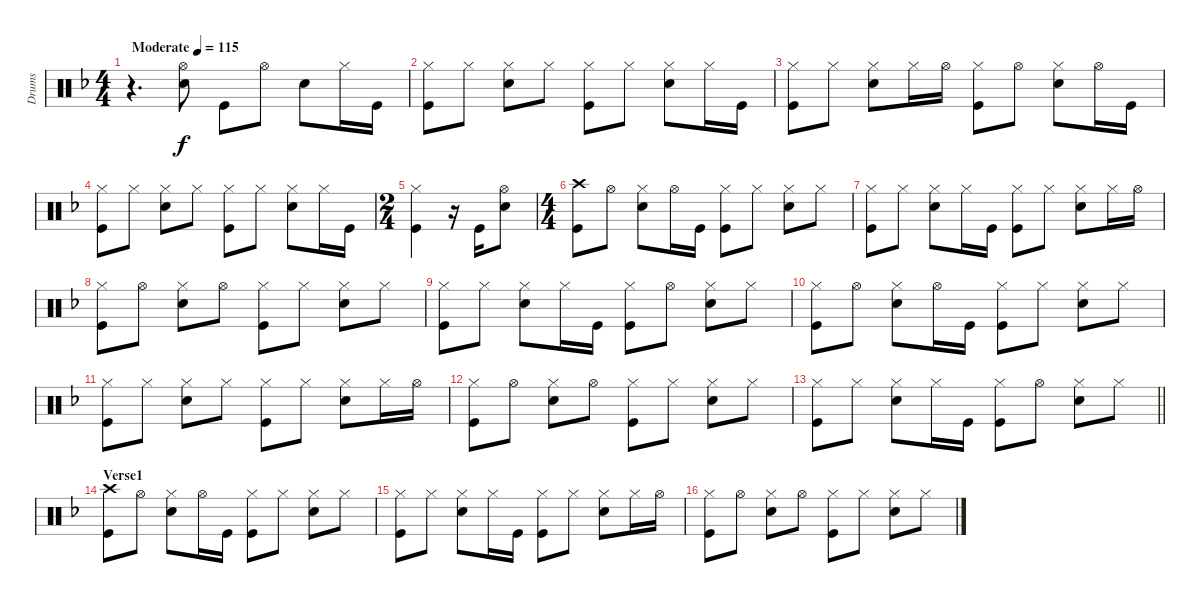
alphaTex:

\track ("Drums" "Drums") {instrument percussion}
\staff {score}
\articulation defaults
\ts (4 4)
\tempo (115 "Moderate")
\clef neutral
\ks f
r.4{d dy f} ("Hi-Hat (open)" "Snare (hit) 2").8 "Kick (hit)".8 "Hi-Hat (open)".8 "Snare (hit) 2".8 "Hi-Hat (closed)".16 "Kick (hit)".16 |
("Hi-Hat (closed)" "Kick (hit)").8 "Hi-Hat (closed)".8 ("Hi-Hat (closed)" "Snare (hit) 2").8 "Hi-Hat (closed)".8 ("Hi-Hat (closed)" "Kick (hit)").8 "Hi-Hat (closed)".8 ("Hi-Hat (closed)" "Snare (hit) 2").8 "Hi-Hat (closed)".16 "Kick (hit)".16 |
("Hi-Hat (closed)" "Kick (hit)").8 "Hi-Hat (closed)".8 ("Hi-Hat (closed)" "Snare (hit) 2").8 "Hi-Hat (closed)".16 "Hi-Hat (open)".16 ("Hi-Hat (closed)" "Kick (hit)").8 "Hi-Hat (open)".8 ("Hi-Hat (closed)" "Snare (hit) 2").8 "Hi-Hat (open)".16 "Kick (hit)".16 |
("Hi-Hat (closed)" "Kick (hit)").8 "Hi-Hat (closed)".8 ("Hi-Hat (closed)" "Snare (hit) 2").8 "Hi-Hat (closed)".8 ("Hi-Hat (closed)" "Kick (hit)").8 "Hi-Hat (closed)".8 ("Hi-Hat (closed)" "Snare (hit) 2").8 "Hi-Hat (closed)".16 "Kick (hit)".16 |
\ts (2 4)
("Hi-Hat (closed)" "Kick (hit)").4 r.16 "Kick (hit)".16 ("Snare (hit) 2" "Hi-Hat (open)").8 |
\ts (4 4)
("Crash high (hit)" "Kick (hit)").8 "Hi-Hat (open)".8 ("Hi-Hat (closed)" "Snare (hit) 2").8 "Hi-Hat (open)".16 "Kick (hit)".16 ("Hi-Hat (closed)" "Kick (hit)").8 "Hi-Hat (closed)".8 ("Hi-Hat (closed)" "Snare (hit) 2").8 "Hi-Hat (closed)".8 |
("Hi-Hat (closed)" "Kick (hit)").8 "Hi-Hat (closed)".8 ("Hi-Hat (closed)" "Snare (hit) 2").8 "Hi-Hat (closed)".16 "Kick (hit)".16 ("Hi-Hat (closed)" "Kick (hit)").8 "Hi-Hat (closed)".8 ("Hi-Hat (closed)" "Snare (hit) 2").8 "Hi-Hat (closed)".16 "Hi-Hat (open)".16 |
("Hi-Hat (closed)" "Kick (hit)").8 "Hi-Hat (open)".8 ("Hi-Hat (closed)" "Snare (hit) 2").8 "Hi-Hat (open)".8 ("Hi-Hat (closed)" "Kick (hit)").8 "Hi-Hat (closed)".8 ("Hi-Hat (closed)" "Snare (hit) 2").8 "Hi-Hat (closed)".8 |
("Hi-Hat (closed)" "Kick (hit)").8 "Hi-Hat (closed)".8 ("Hi-Hat (closed)" "Snare (hit) 2").8 "Hi-Hat (closed)".16 "Kick (hit)".16 ("Hi-Hat (closed)" "Kick (hit)").8 "Hi-Hat (open)".8 ("Hi-Hat (closed)" "Snare (hit) 2").8 "Hi-Hat (closed)".8 |
("Hi-Hat (closed)" "Kick (hit)").8 "Hi-Hat (open)".8 ("Hi-Hat (closed)" "Snare (hit) 2").8 "Hi-Hat (open)".16 "Kick (hit)".16 ("Hi-Hat (closed)" "Kick (hit)").8 "Hi-Hat (closed)".8 ("Hi-Hat (closed)" "Snare (hit) 2").8 "Hi-Hat (closed)".8 |
("Hi-Hat (closed)" "Kick (hit)").8 "Hi-Hat (closed)".8 ("Hi-Hat (closed)" "Snare (hit) 2").8 "Hi-Hat (closed)".8 ("Hi-Hat (closed)" "Kick (hit)").8 "Hi-Hat (closed)".8 ("Hi-Hat (closed)" "Snare (hit) 2").8 "Hi-Hat (closed)".16 "Hi-Hat (open)".16 |
("Hi-Hat (closed)" "Kick (hit)").8 "Hi-Hat (open)".8 ("Hi-Hat (closed)" "Snare (hit) 2").8 "Hi-Hat (open)".8 ("Hi-Hat (closed)" "Kick (hit)").8 "Hi-Hat (closed)".8 ("Hi-Hat (closed)" "Snare (hit) 2").8 "Hi-Hat (closed)".8 |
\barLineRight lightlight
("Hi-Hat (closed)" "Kick (hit)").8 "Hi-Hat (closed)".8 ("Hi-Hat (closed)" "Snare (hit) 2").8 "Hi-Hat (closed)".16 "Kick (hit)".16 ("Hi-Hat (closed)" "Kick (hit)").8 "Hi-Hat (open)".8 ("Hi-Hat (closed)" "Snare (hit) 2").8 "Hi-Hat (closed)".8 |
\section ("" "Verse1")
("Crash high (hit)" "Kick (hit)").8 "Hi-Hat (open)".8 ("Hi-Hat (closed)" "Snare (hit) 2").8 "Hi-Hat (open)".16 "Kick (hit)".16 ("Hi-Hat (closed)" "Kick (hit)").8 "Hi-Hat (closed)".8 ("Hi-Hat (closed)" "Snare (hit) 2").8 "Hi-Hat (closed)".8 |
("Hi-Hat (closed)" "Kick (hit)").8 "Hi-Hat (closed)".8 ("Hi-Hat (closed)" "Snare (hit) 2").8 "Hi-Hat (closed)".16 "Kick (hit)".16 ("Hi-Hat (closed)" "Kick (hit)").8 "Hi-Hat (closed)".8 ("Hi-Hat (closed)" "Snare (hit) 2").8 "Hi-Hat (closed)".16 "Hi-Hat (open)".16 |
("Hi-Hat (closed)" "Kick (hit)").8 "Hi-Hat (open)".8 ("Hi-Hat (closed)" "Snare (hit) 2").8 "Hi-Hat (open)".8 ("Hi-Hat (closed)" "Kick (hit)").8 "Hi-Hat (closed)".8 ("Hi-Hat (closed)" "Snare (hit) 2").8 "Hi-Hat (closed)".8
